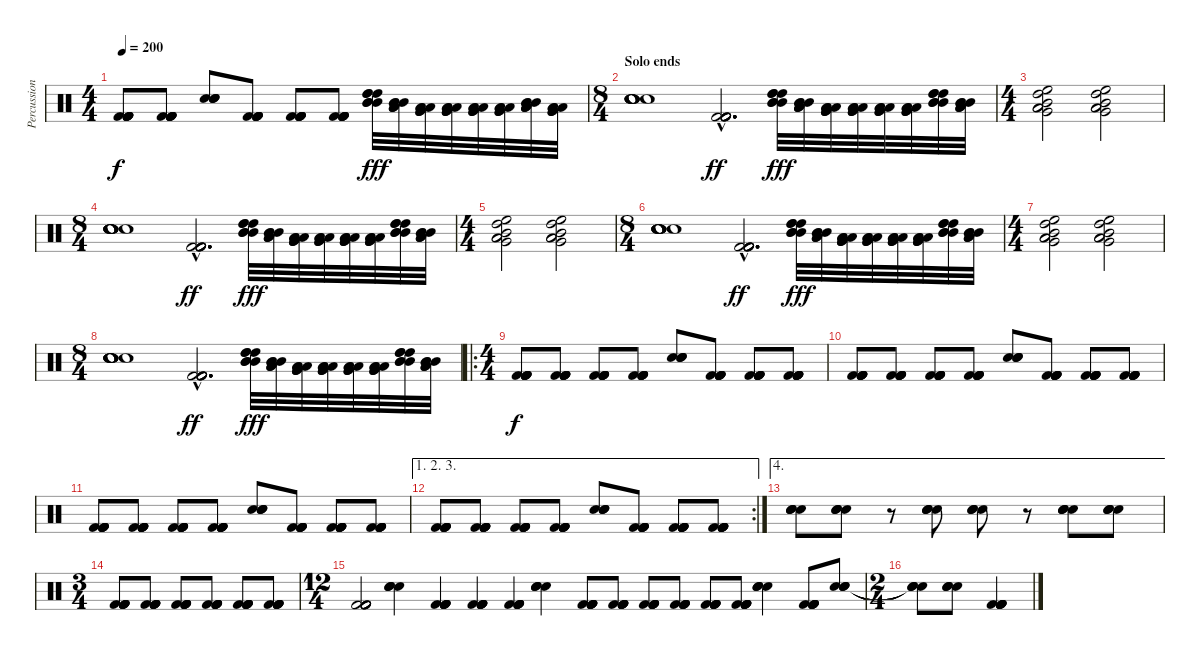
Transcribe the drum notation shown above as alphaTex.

\track ("Percussion" "Percussion") {instrument percussion}
\staff {score}
\articulation defaults
\ts (4 4)
\tempo 200
\clef neutral
\ks c
("Kick (hit) 2" "Kick (hit) 2" "Kick (hit) 2" "Kick (hit) 2" "Kick (hit) 2" "Kick (hit) 2").8{dy f} ("Kick (hit) 2" "Kick (hit) 2" "Kick (hit) 2" "Kick (hit) 2" "Kick (hit) 2" "Kick (hit) 2").8 ("Snare (hit) 2" "Snare (hit) 2" "Snare (hit) 2" "Snare (hit) 2").8 ("Kick (hit) 2" "Kick (hit) 2" "Kick (hit) 2" "Kick (hit) 2" "Kick (hit) 2" "Kick (hit) 2").8 ("Kick (hit) 2" "Kick (hit) 2" "Kick (hit) 2" "Kick (hit) 2" "Kick (hit) 2" "Kick (hit) 2").8 ("Kick (hit) 2" "Kick (hit) 2" "Kick (hit) 2" "Kick (hit) 2" "Kick (hit) 2" "Kick (hit) 2").8 ("High Tom (hit)" "High Tom (hit)" "High Tom (hit)" "Mid Tom (hit)" "Mid Tom (hit)" "Mid Tom (hit)").32{dy fff} ("Mid Tom (hit)" "Mid Tom (hit)" "Mid Tom (hit)" "Low Tom (hit)" "Low Tom (hit)" "Low Tom (hit)").32 ("Low Tom (hit)" "Low Tom (hit)" "Low Tom (hit)" "Very Low Tom (hit)" "Very Low Tom (hit)" "Very Low Tom (hit)").32 ("Very Low Tom (hit)" "Very Low Tom (hit)" "Very Low Tom (hit)" "Low Floor Tom (hit)" "Low Floor Tom (hit)" "Low Floor Tom (hit)").32 ("Low Tom (hit)" "Low Tom (hit)" "Low Tom (hit)" "Very Low Tom (hit)" "Very Low Tom (hit)" "Very Low Tom (hit)").32 ("Very Low Tom (hit)" "Very Low Tom (hit)" "Very Low Tom (hit)" "Low Floor Tom (hit)" "Low Floor Tom (hit)" "Low Floor Tom (hit)").32 ("Mid Tom (hit)" "Mid Tom (hit)" "Mid Tom (hit)" "Low Tom (hit)" "Low Tom (hit)" "Low Tom (hit)").32 ("Very Low Tom (hit)" "Very Low Tom (hit)" "Very Low Tom (hit)" "Low Floor Tom (hit)" "Low Floor Tom (hit)" "Low Floor Tom (hit)").32 |
\ts (8 4)
\section ("" "Solo ends")
("Snare (hit) 2" "Snare (hit) 2" "Snare (hit) 2" "Snare (hit) 2" "Snare (hit) 2" "Snare (hit) 2").1 ("Kick (hit) 2"{hac} "Kick (hit) 2"{hac} "Kick (hit) 2"{hac} "Kick (hit) 2"{hac} "Kick (hit) 2"{hac} "Kick (hit) 2"{hac}).2{d dy ff} ("High Tom (hit)" "High Tom (hit)" "High Tom (hit)" "Mid Tom (hit)" "Mid Tom (hit)" "Mid Tom (hit)").32{dy fff} ("Mid Tom (hit)" "Mid Tom (hit)" "Mid Tom (hit)" "Low Tom (hit)" "Low Tom (hit)" "Low Tom (hit)").32 ("Low Tom (hit)" "Low Tom (hit)" "Low Tom (hit)" "Very Low Tom (hit)" "Very Low Tom (hit)" "Very Low Tom (hit)").32 ("Very Low Tom (hit)" "Very Low Tom (hit)" "Very Low Tom (hit)" "Low Floor Tom (hit)" "Low Floor Tom (hit)" "Low Floor Tom (hit)").32 ("Low Tom (hit)" "Low Tom (hit)" "Low Tom (hit)" "Very Low Tom (hit)" "Very Low Tom (hit)" "Very Low Tom (hit)").32 ("Very Low Tom (hit)" "Very Low Tom (hit)" "Very Low Tom (hit)" "Low Floor Tom (hit)" "Low Floor Tom (hit)" "Low Floor Tom (hit)").32 ("High Tom (hit)" "High Tom (hit)" "High Tom (hit)" "Mid Tom (hit)" "Mid Tom (hit)" "Mid Tom (hit)").32 ("Mid Tom (hit)" "Mid Tom (hit)" "Mid Tom (hit)" "Low Tom (hit)" "Low Tom (hit)" "Low Tom (hit)").32 |
\ts (4 4)
("High Floor Tom (hit)" "High Tom (hit)" "Mid Tom (hit)" "Low Tom (hit)" "Very Low Tom (hit)" "Low Floor Tom (hit)").2 ("High Floor Tom (hit)" "High Tom (hit)" "Mid Tom (hit)" "Low Tom (hit)" "Very Low Tom (hit)" "Low Floor Tom (hit)").2 |
\ts (8 4)
("Snare (hit) 2" "Snare (hit) 2" "Snare (hit) 2" "Snare (hit) 2" "Snare (hit) 2" "Snare (hit) 2").1 ("Kick (hit) 2"{hac} "Kick (hit) 2"{hac} "Kick (hit) 2"{hac} "Kick (hit) 2"{hac} "Kick (hit) 2"{hac} "Kick (hit) 2"{hac}).2{d dy ff} ("High Tom (hit)" "High Tom (hit)" "High Tom (hit)" "Mid Tom (hit)" "Mid Tom (hit)" "Mid Tom (hit)").32{dy fff} ("Mid Tom (hit)" "Mid Tom (hit)" "Mid Tom (hit)" "Low Tom (hit)" "Low Tom (hit)" "Low Tom (hit)").32 ("Low Tom (hit)" "Low Tom (hit)" "Low Tom (hit)" "Very Low Tom (hit)" "Very Low Tom (hit)" "Very Low Tom (hit)").32 ("Very Low Tom (hit)" "Very Low Tom (hit)" "Very Low Tom (hit)" "Low Floor Tom (hit)" "Low Floor Tom (hit)" "Low Floor Tom (hit)").32 ("Low Tom (hit)" "Low Tom (hit)" "Low Tom (hit)" "Very Low Tom (hit)" "Very Low Tom (hit)" "Very Low Tom (hit)").32 ("Very Low Tom (hit)" "Very Low Tom (hit)" "Very Low Tom (hit)" "Low Floor Tom (hit)" "Low Floor Tom (hit)" "Low Floor Tom (hit)").32 ("High Tom (hit)" "High Tom (hit)" "High Tom (hit)" "Mid Tom (hit)" "Mid Tom (hit)" "Mid Tom (hit)").32 ("Mid Tom (hit)" "Mid Tom (hit)" "Mid Tom (hit)" "Low Tom (hit)" "Low Tom (hit)" "Low Tom (hit)").32 |
\ts (4 4)
("High Floor Tom (hit)" "High Tom (hit)" "Mid Tom (hit)" "Low Tom (hit)" "Very Low Tom (hit)" "Low Floor Tom (hit)").2 ("High Floor Tom (hit)" "High Tom (hit)" "Mid Tom (hit)" "Low Tom (hit)" "Very Low Tom (hit)" "Low Floor Tom (hit)").2 |
\ts (8 4)
("Snare (hit) 2" "Snare (hit) 2" "Snare (hit) 2" "Snare (hit) 2" "Snare (hit) 2" "Snare (hit) 2").1 ("Kick (hit) 2"{hac} "Kick (hit) 2"{hac} "Kick (hit) 2"{hac} "Kick (hit) 2"{hac} "Kick (hit) 2"{hac} "Kick (hit) 2"{hac}).2{d dy ff} ("High Tom (hit)" "High Tom (hit)" "High Tom (hit)" "Mid Tom (hit)" "Mid Tom (hit)" "Mid Tom (hit)").32{dy fff} ("Mid Tom (hit)" "Mid Tom (hit)" "Mid Tom (hit)" "Low Tom (hit)" "Low Tom (hit)" "Low Tom (hit)").32 ("Low Tom (hit)" "Low Tom (hit)" "Low Tom (hit)" "Very Low Tom (hit)" "Very Low Tom (hit)" "Very Low Tom (hit)").32 ("Very Low Tom (hit)" "Very Low Tom (hit)" "Very Low Tom (hit)" "Low Floor Tom (hit)" "Low Floor Tom (hit)" "Low Floor Tom (hit)").32 ("Low Tom (hit)" "Low Tom (hit)" "Low Tom (hit)" "Very Low Tom (hit)" "Very Low Tom (hit)" "Very Low Tom (hit)").32 ("Very Low Tom (hit)" "Very Low Tom (hit)" "Very Low Tom (hit)" "Low Floor Tom (hit)" "Low Floor Tom (hit)" "Low Floor Tom (hit)").32 ("High Tom (hit)" "High Tom (hit)" "High Tom (hit)" "Mid Tom (hit)" "Mid Tom (hit)" "Mid Tom (hit)").32 ("Mid Tom (hit)" "Mid Tom (hit)" "Mid Tom (hit)" "Low Tom (hit)" "Low Tom (hit)" "Low Tom (hit)").32 |
\ts (4 4)
("High Floor Tom (hit)" "High Tom (hit)" "Mid Tom (hit)" "Low Tom (hit)" "Very Low Tom (hit)" "Low Floor Tom (hit)").2 ("High Floor Tom (hit)" "High Tom (hit)" "Mid Tom (hit)" "Low Tom (hit)" "Very Low Tom (hit)" "Low Floor Tom (hit)").2 |
\ts (8 4)
("Snare (hit) 2" "Snare (hit) 2" "Snare (hit) 2" "Snare (hit) 2" "Snare (hit) 2" "Snare (hit) 2").1 ("Kick (hit) 2"{hac} "Kick (hit) 2"{hac} "Kick (hit) 2"{hac} "Kick (hit) 2"{hac} "Kick (hit) 2"{hac} "Kick (hit) 2"{hac}).2{d dy ff} ("High Tom (hit)" "High Tom (hit)" "High Tom (hit)" "Mid Tom (hit)" "Mid Tom (hit)" "Mid Tom (hit)").32{dy fff} ("Mid Tom (hit)" "Mid Tom (hit)" "Mid Tom (hit)" "Low Tom (hit)" "Low Tom (hit)" "Low Tom (hit)").32 ("Low Tom (hit)" "Low Tom (hit)" "Low Tom (hit)" "Very Low Tom (hit)" "Very Low Tom (hit)" "Very Low Tom (hit)").32 ("Very Low Tom (hit)" "Very Low Tom (hit)" "Very Low Tom (hit)" "Low Floor Tom (hit)" "Low Floor Tom (hit)" "Low Floor Tom (hit)").32 ("Low Tom (hit)" "Low Tom (hit)" "Low Tom (hit)" "Very Low Tom (hit)" "Very Low Tom (hit)" "Very Low Tom (hit)").32 ("Very Low Tom (hit)" "Very Low Tom (hit)" "Very Low Tom (hit)" "Low Floor Tom (hit)" "Low Floor Tom (hit)" "Low Floor Tom (hit)").32 ("High Tom (hit)" "High Tom (hit)" "High Tom (hit)" "Mid Tom (hit)" "Mid Tom (hit)" "Mid Tom (hit)").32 ("Mid Tom (hit)" "Mid Tom (hit)" "Mid Tom (hit)" "Low Tom (hit)" "Low Tom (hit)" "Low Tom (hit)").32 |
\ro
\ts (4 4)
("Kick (hit) 2" "Kick (hit) 2" "Kick (hit) 2" "Kick (hit) 2" "Kick (hit) 2" "Kick (hit) 2").8{dy f} ("Kick (hit) 2" "Kick (hit) 2" "Kick (hit) 2" "Kick (hit) 2" "Kick (hit) 2" "Kick (hit) 2").8 ("Kick (hit) 2" "Kick (hit) 2" "Kick (hit) 2" "Kick (hit) 2" "Kick (hit) 2" "Kick (hit) 2").8 ("Kick (hit) 2" "Kick (hit) 2" "Kick (hit) 2" "Kick (hit) 2" "Kick (hit) 2" "Kick (hit) 2").8 ("Snare (hit) 2" "Snare (hit) 2" "Snare (hit) 2" "Snare (hit) 2").8 ("Kick (hit) 2" "Kick (hit) 2" "Kick (hit) 2" "Kick (hit) 2" "Kick (hit) 2" "Kick (hit) 2").8 ("Kick (hit) 2" "Kick (hit) 2" "Kick (hit) 2" "Kick (hit) 2" "Kick (hit) 2" "Kick (hit) 2").8 ("Kick (hit) 2" "Kick (hit) 2" "Kick (hit) 2" "Kick (hit) 2" "Kick (hit) 2" "Kick (hit) 2").8 |
("Kick (hit) 2" "Kick (hit) 2" "Kick (hit) 2" "Kick (hit) 2" "Kick (hit) 2" "Kick (hit) 2").8 ("Kick (hit) 2" "Kick (hit) 2" "Kick (hit) 2" "Kick (hit) 2" "Kick (hit) 2" "Kick (hit) 2").8 ("Kick (hit) 2" "Kick (hit) 2" "Kick (hit) 2" "Kick (hit) 2" "Kick (hit) 2" "Kick (hit) 2").8 ("Kick (hit) 2" "Kick (hit) 2" "Kick (hit) 2" "Kick (hit) 2" "Kick (hit) 2" "Kick (hit) 2").8 ("Snare (hit) 2" "Snare (hit) 2" "Snare (hit) 2" "Snare (hit) 2").8 ("Kick (hit) 2" "Kick (hit) 2" "Kick (hit) 2" "Kick (hit) 2" "Kick (hit) 2" "Kick (hit) 2").8 ("Kick (hit) 2" "Kick (hit) 2" "Kick (hit) 2" "Kick (hit) 2" "Kick (hit) 2" "Kick (hit) 2").8 ("Kick (hit) 2" "Kick (hit) 2" "Kick (hit) 2" "Kick (hit) 2" "Kick (hit) 2" "Kick (hit) 2").8 |
("Kick (hit) 2" "Kick (hit) 2" "Kick (hit) 2" "Kick (hit) 2" "Kick (hit) 2" "Kick (hit) 2").8 ("Kick (hit) 2" "Kick (hit) 2" "Kick (hit) 2" "Kick (hit) 2" "Kick (hit) 2" "Kick (hit) 2").8 ("Kick (hit) 2" "Kick (hit) 2" "Kick (hit) 2" "Kick (hit) 2" "Kick (hit) 2" "Kick (hit) 2").8 ("Kick (hit) 2" "Kick (hit) 2" "Kick (hit) 2" "Kick (hit) 2" "Kick (hit) 2" "Kick (hit) 2").8 ("Snare (hit) 2" "Snare (hit) 2" "Snare (hit) 2" "Snare (hit) 2").8 ("Kick (hit) 2" "Kick (hit) 2" "Kick (hit) 2" "Kick (hit) 2" "Kick (hit) 2" "Kick (hit) 2").8 ("Kick (hit) 2" "Kick (hit) 2" "Kick (hit) 2" "Kick (hit) 2" "Kick (hit) 2" "Kick (hit) 2").8 ("Kick (hit) 2" "Kick (hit) 2" "Kick (hit) 2" "Kick (hit) 2" "Kick (hit) 2" "Kick (hit) 2").8 |
\ae (1 2 3)
\rc 2
("Kick (hit) 2" "Kick (hit) 2" "Kick (hit) 2" "Kick (hit) 2" "Kick (hit) 2" "Kick (hit) 2").8 ("Kick (hit) 2" "Kick (hit) 2" "Kick (hit) 2" "Kick (hit) 2" "Kick (hit) 2" "Kick (hit) 2").8 ("Kick (hit) 2" "Kick (hit) 2" "Kick (hit) 2" "Kick (hit) 2" "Kick (hit) 2" "Kick (hit) 2").8 ("Kick (hit) 2" "Kick (hit) 2" "Kick (hit) 2" "Kick (hit) 2" "Kick (hit) 2" "Kick (hit) 2").8 ("Snare (hit) 2" "Snare (hit) 2" "Snare (hit) 2" "Snare (hit) 2").8 ("Kick (hit) 2" "Kick (hit) 2" "Kick (hit) 2" "Kick (hit) 2" "Kick (hit) 2" "Kick (hit) 2").8 ("Kick (hit) 2" "Kick (hit) 2" "Kick (hit) 2" "Kick (hit) 2" "Kick (hit) 2" "Kick (hit) 2").8 ("Kick (hit) 2" "Kick (hit) 2" "Kick (hit) 2" "Kick (hit) 2" "Kick (hit) 2" "Kick (hit) 2").8 |
\ae 4
("Snare (hit) 2" "Snare (hit) 2" "Snare (hit) 2" "Snare (hit) 2").8 ("Snare (hit) 2" "Snare (hit) 2" "Snare (hit) 2" "Snare (hit) 2").8 r.8 ("Snare (hit) 2" "Snare (hit) 2" "Snare (hit) 2" "Snare (hit) 2").8 ("Snare (hit) 2" "Snare (hit) 2" "Snare (hit) 2" "Snare (hit) 2").8 r.8 ("Snare (hit) 2" "Snare (hit) 2" "Snare (hit) 2" "Snare (hit) 2").8 ("Snare (hit) 2" "Snare (hit) 2" "Snare (hit) 2" "Snare (hit) 2").8 |
\ts (3 4)
("Kick (hit) 2" "Kick (hit) 2" "Kick (hit) 2" "Kick (hit) 2" "Kick (hit) 2" "Kick (hit) 2").8 ("Kick (hit) 2" "Kick (hit) 2" "Kick (hit) 2" "Kick (hit) 2" "Kick (hit) 2" "Kick (hit) 2").8 ("Kick (hit) 2" "Kick (hit) 2" "Kick (hit) 2" "Kick (hit) 2" "Kick (hit) 2" "Kick (hit) 2").8 ("Kick (hit) 2" "Kick (hit) 2" "Kick (hit) 2" "Kick (hit) 2" "Kick (hit) 2" "Kick (hit) 2").8 ("Kick (hit) 2" "Kick (hit) 2" "Kick (hit) 2" "Kick (hit) 2" "Kick (hit) 2" "Kick (hit) 2").8 ("Kick (hit) 2" "Kick (hit) 2" "Kick (hit) 2" "Kick (hit) 2" "Kick (hit) 2" "Kick (hit) 2").8 |
\ts (12 4)
("Kick (hit) 2" "Kick (hit) 2" "Kick (hit) 2" "Kick (hit) 2" "Kick (hit) 2" "Kick (hit) 2").2 ("Snare (hit) 2" "Snare (hit) 2" "Snare (hit) 2" "Snare (hit) 2").4 ("Kick (hit) 2" "Kick (hit) 2" "Kick (hit) 2" "Kick (hit) 2" "Kick (hit) 2" "Kick (hit) 2").4 ("Kick (hit) 2" "Kick (hit) 2" "Kick (hit) 2" "Kick (hit) 2" "Kick (hit) 2" "Kick (hit) 2").4 ("Kick (hit) 2" "Kick (hit) 2" "Kick (hit) 2" "Kick (hit) 2" "Kick (hit) 2" "Kick (hit) 2").4 ("Snare (hit) 2" "Snare (hit) 2" "Snare (hit) 2" "Snare (hit) 2").4 ("Kick (hit) 2" "Kick (hit) 2" "Kick (hit) 2" "Kick (hit) 2" "Kick (hit) 2" "Kick (hit) 2").8 ("Kick (hit) 2" "Kick (hit) 2" "Kick (hit) 2" "Kick (hit) 2" "Kick (hit) 2" "Kick (hit) 2").8 ("Kick (hit) 2" "Kick (hit) 2" "Kick (hit) 2" "Kick (hit) 2" "Kick (hit) 2" "Kick (hit) 2").8 ("Kick (hit) 2" "Kick (hit) 2" "Kick (hit) 2" "Kick (hit) 2" "Kick (hit) 2" "Kick (hit) 2").8 ("Kick (hit) 2" "Kick (hit) 2" "Kick (hit) 2" "Kick (hit) 2" "Kick (hit) 2" "Kick (hit) 2").8 ("Kick (hit) 2" "Kick (hit) 2" "Kick (hit) 2" "Kick (hit) 2" "Kick (hit) 2" "Kick (hit) 2").8 ("Snare (hit) 2" "Snare (hit) 2" "Snare (hit) 2" "Snare (hit) 2").4 ("Kick (hit) 2" "Kick (hit) 2" "Kick (hit) 2" "Kick (hit) 2" "Kick (hit) 2" "Kick (hit) 2").8 ("Snare (hit) 2" "Snare (hit) 2" "Snare (hit) 2" "Snare (hit) 2").8 |
\ts (2 4)
("Snare (hit) 2"{t} "Snare (hit) 2"{t} "Snare (hit) 2"{t} "Snare (hit) 2"{t}).8 ("Snare (hit) 2" "Snare (hit) 2" "Snare (hit) 2" "Snare (hit) 2").8 ("Kick (hit) 2" "Kick (hit) 2" "Kick (hit) 2" "Kick (hit) 2" "Kick (hit) 2" "Kick (hit) 2").4
